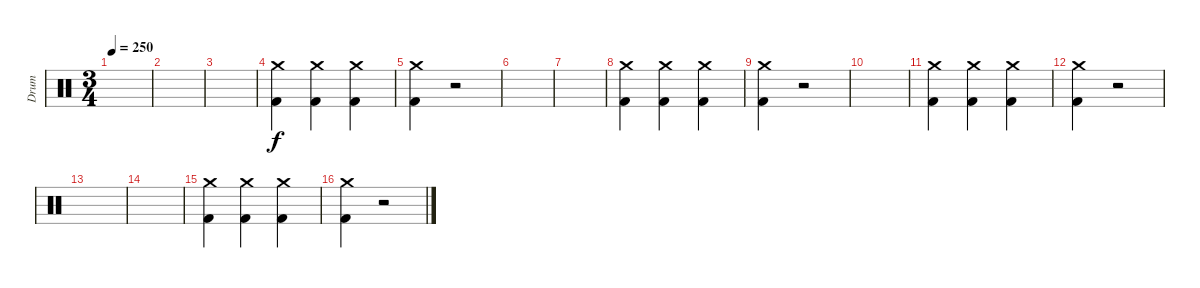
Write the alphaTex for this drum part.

\track ("Drum" "Drum") {instrument percussion}
\staff {score}
\articulation defaults
\ts (3 4)
\tempo 250
\clef neutral
\ks c
|
|
|
("Crash medium (hit)" "Kick (hit) 2").4 ("Crash medium (hit)" "Kick (hit) 2").4 ("Crash medium (hit)" "Kick (hit) 2").4 |
("Crash medium (hit)" "Kick (hit) 2").4 r.2 |
|
|
("Crash medium (hit)" "Kick (hit) 2").4 ("Crash medium (hit)" "Kick (hit) 2").4 ("Crash medium (hit)" "Kick (hit) 2").4 |
("Crash medium (hit)" "Kick (hit) 2").4 r.2 |
|
("Crash medium (hit)" "Kick (hit) 2").4 ("Crash medium (hit)" "Kick (hit) 2").4 ("Crash medium (hit)" "Kick (hit) 2").4 |
("Crash medium (hit)" "Kick (hit) 2").4 r.2 |
|
|
("Crash medium (hit)" "Kick (hit) 2").4 ("Crash medium (hit)" "Kick (hit) 2").4 ("Crash medium (hit)" "Kick (hit) 2").4 |
("Crash medium (hit)" "Kick (hit) 2").4 r.2
